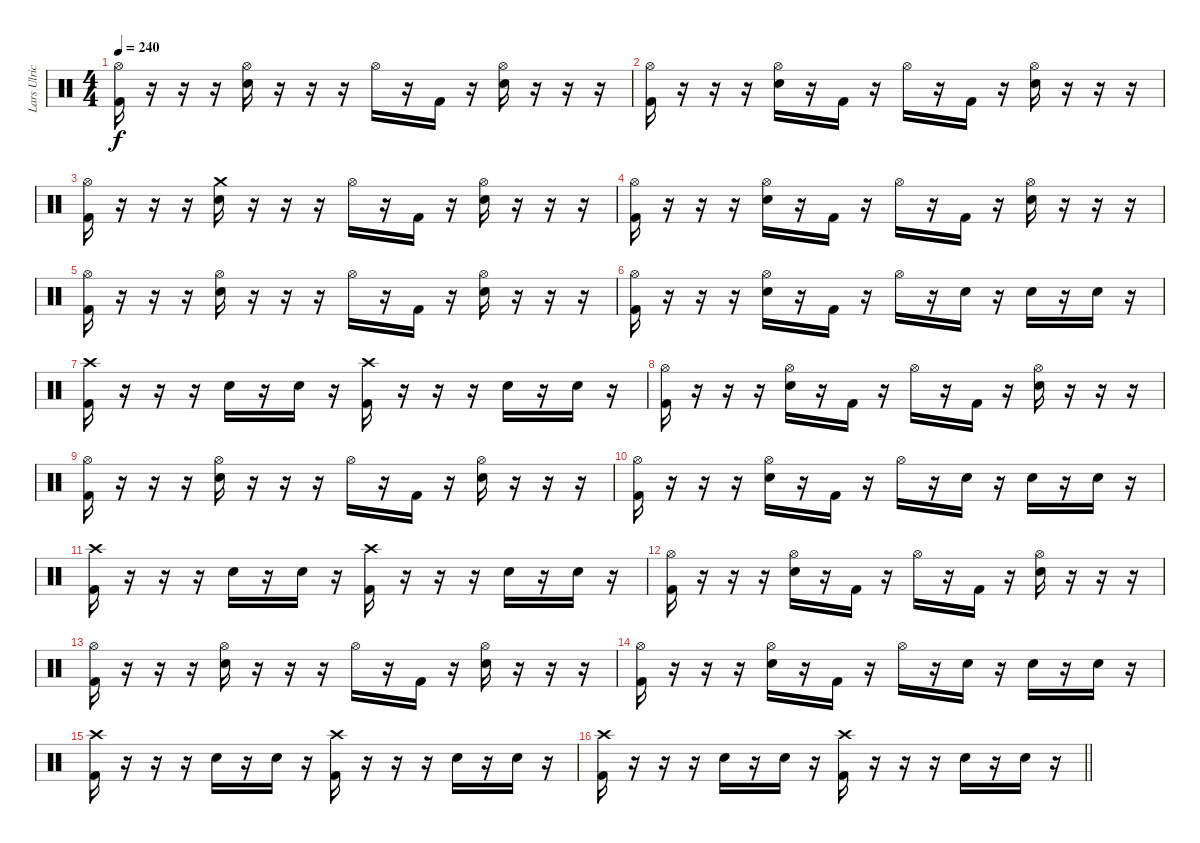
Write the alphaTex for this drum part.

\track ("Lars Ulrich" "Lars Ulric") {instrument percussion}
\staff {score}
\articulation defaults
\ts (4 4)
\tempo 240
\clef neutral
\ks c
("Hi-Hat (open)" "Kick (hit) 2").16{dy f} r.16 r.16 r.16 ("Electric Snare (hit)" "Hi-Hat (open)").16 r.16 r.16 r.16 "Hi-Hat (open)".16 r.16 "Kick (hit) 2".16 r.16 ("Electric Snare (hit)" "Hi-Hat (open)").16 r.16 r.16 r.16 |
("Hi-Hat (open)" "Kick (hit) 2").16 r.16 r.16 r.16 ("Electric Snare (hit)" "Hi-Hat (open)").16 r.16 "Kick (hit) 2".16 r.16 "Hi-Hat (open)".16 r.16 "Kick (hit) 2".16 r.16 ("Electric Snare (hit)" "Hi-Hat (open)").16 r.16 r.16 r.16 |
("Hi-Hat (open)" "Kick (hit) 2").16 r.16 r.16 r.16 ("Electric Snare (hit)" "Crash medium (hit)").16 r.16 r.16 r.16 "Hi-Hat (open)".16 r.16 "Kick (hit) 2".16 r.16 ("Electric Snare (hit)" "Hi-Hat (open)").16 r.16 r.16 r.16 |
("Hi-Hat (open)" "Kick (hit) 2").16 r.16 r.16 r.16 ("Electric Snare (hit)" "Hi-Hat (open)").16 r.16 "Kick (hit) 2".16 r.16 "Hi-Hat (open)".16 r.16 "Kick (hit) 2".16 r.16 ("Electric Snare (hit)" "Hi-Hat (open)").16 r.16 r.16 r.16 |
("Hi-Hat (open)" "Kick (hit) 2").16 r.16 r.16 r.16 ("Electric Snare (hit)" "Hi-Hat (open)").16 r.16 r.16 r.16 "Hi-Hat (open)".16 r.16 "Kick (hit) 2".16 r.16 ("Electric Snare (hit)" "Hi-Hat (open)").16 r.16 r.16 r.16 |
("Hi-Hat (open)" "Kick (hit) 2").16 r.16 r.16 r.16 ("Electric Snare (hit)" "Hi-Hat (open)").16 r.16 "Kick (hit) 2".16 r.16 "Hi-Hat (open)".16 r.16 "Electric Snare (hit)".16 r.16 "Electric Snare (hit)".16 r.16 "Electric Snare (hit)".16 r.16 |
("Crash high (hit)" "Kick (hit) 2").16 r.16 r.16 r.16 "Electric Snare (hit)".16 r.16 "Electric Snare (hit)".16 r.16 ("Crash high (hit)" "Kick (hit) 2").16 r.16 r.16 r.16 "Electric Snare (hit)".16 r.16 "Electric Snare (hit)".16 r.16 |
("Hi-Hat (open)" "Kick (hit) 2").16 r.16 r.16 r.16 ("Electric Snare (hit)" "Hi-Hat (open)").16 r.16 "Kick (hit) 2".16 r.16 "Hi-Hat (open)".16 r.16 "Kick (hit) 2".16 r.16 ("Electric Snare (hit)" "Hi-Hat (open)").16 r.16 r.16 r.16 |
("Hi-Hat (open)" "Kick (hit) 2").16 r.16 r.16 r.16 ("Electric Snare (hit)" "Hi-Hat (open)").16 r.16 r.16 r.16 "Hi-Hat (open)".16 r.16 "Kick (hit) 2".16 r.16 ("Electric Snare (hit)" "Hi-Hat (open)").16 r.16 r.16 r.16 |
("Hi-Hat (open)" "Kick (hit) 2").16 r.16 r.16 r.16 ("Electric Snare (hit)" "Hi-Hat (open)").16 r.16 "Kick (hit) 2".16 r.16 "Hi-Hat (open)".16 r.16 "Electric Snare (hit)".16 r.16 "Electric Snare (hit)".16 r.16 "Electric Snare (hit)".16 r.16 |
("Crash high (hit)" "Kick (hit) 2").16 r.16 r.16 r.16 "Electric Snare (hit)".16 r.16 "Electric Snare (hit)".16 r.16 ("Crash high (hit)" "Kick (hit) 2").16 r.16 r.16 r.16 "Electric Snare (hit)".16 r.16 "Electric Snare (hit)".16 r.16 |
("Hi-Hat (open)" "Kick (hit) 2").16 r.16 r.16 r.16 ("Electric Snare (hit)" "Hi-Hat (open)").16 r.16 "Kick (hit) 2".16 r.16 "Hi-Hat (open)".16 r.16 "Kick (hit) 2".16 r.16 ("Electric Snare (hit)" "Hi-Hat (open)").16 r.16 r.16 r.16 |
("Hi-Hat (open)" "Kick (hit) 2").16 r.16 r.16 r.16 ("Electric Snare (hit)" "Hi-Hat (open)").16 r.16 r.16 r.16 "Hi-Hat (open)".16 r.16 "Kick (hit) 2".16 r.16 ("Electric Snare (hit)" "Hi-Hat (open)").16 r.16 r.16 r.16 |
("Hi-Hat (open)" "Kick (hit) 2").16 r.16 r.16 r.16 ("Electric Snare (hit)" "Hi-Hat (open)").16 r.16 "Kick (hit) 2".16 r.16 "Hi-Hat (open)".16 r.16 "Electric Snare (hit)".16 r.16 "Electric Snare (hit)".16 r.16 "Electric Snare (hit)".16 r.16 |
("Crash high (hit)" "Kick (hit) 2").16 r.16 r.16 r.16 "Electric Snare (hit)".16 r.16 "Electric Snare (hit)".16 r.16 ("Crash high (hit)" "Kick (hit) 2").16 r.16 r.16 r.16 "Electric Snare (hit)".16 r.16 "Electric Snare (hit)".16 r.16 |
\barLineRight lightlight
("Crash high (hit)" "Kick (hit) 2").16 r.16 r.16 r.16 "Electric Snare (hit)".16 r.16 "Electric Snare (hit)".16 r.16 ("Crash high (hit)" "Kick (hit) 2").16 r.16 r.16 r.16 "Electric Snare (hit)".16 r.16 "Electric Snare (hit)".16 r.16
